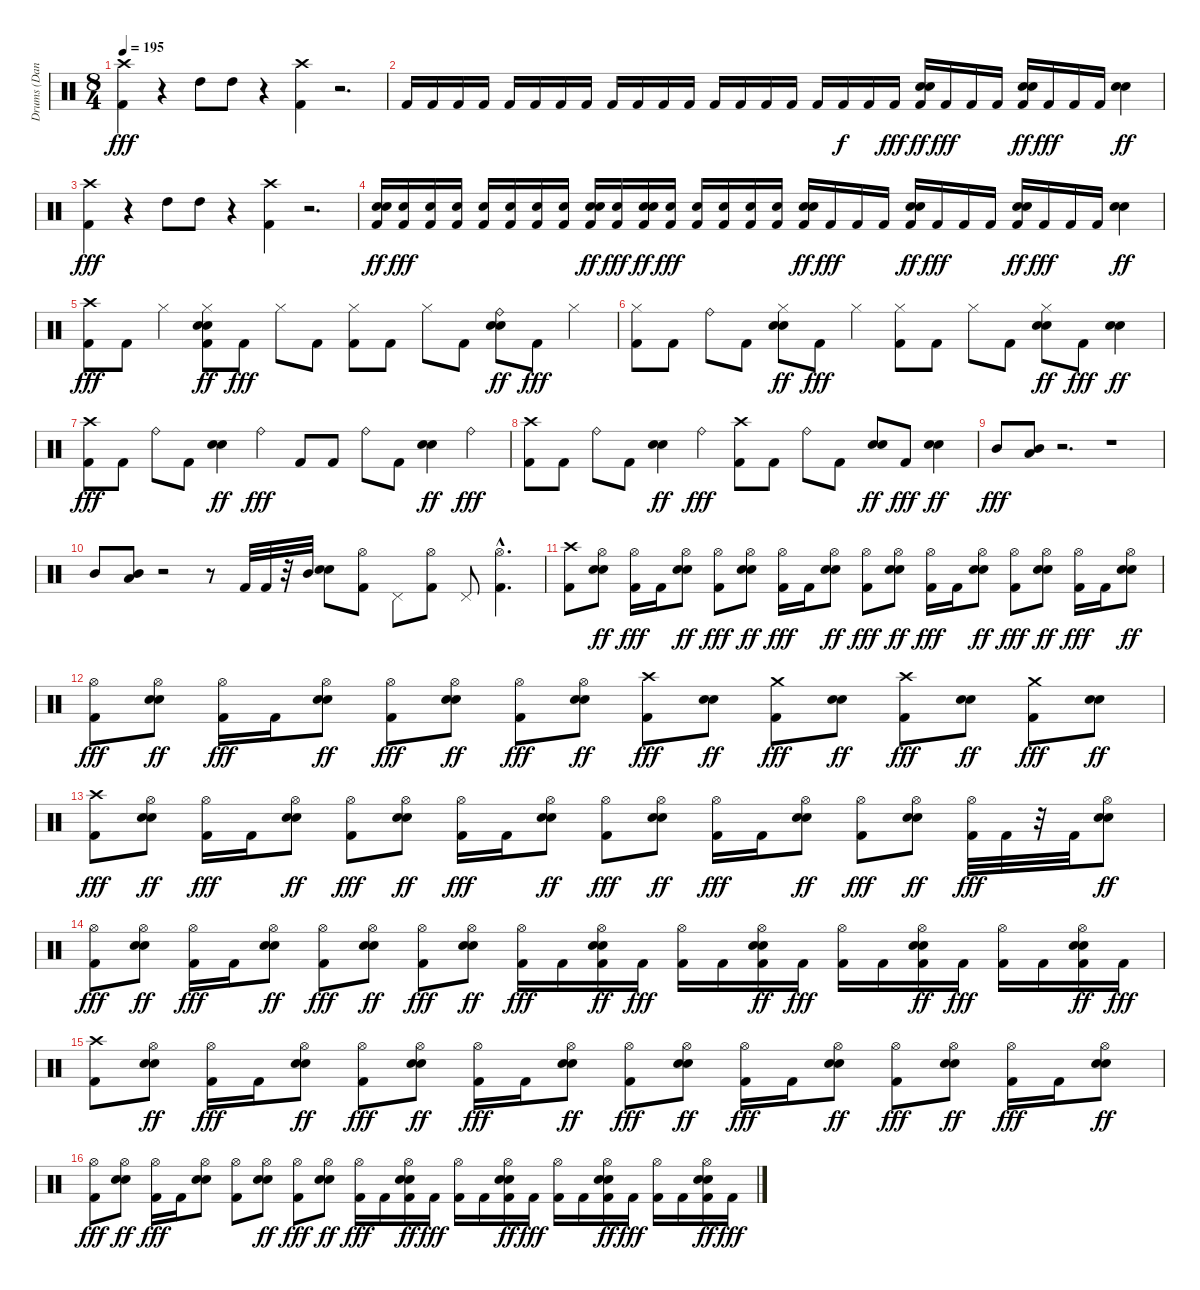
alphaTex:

\track ("Drums (Dan Zimmermann)" "Drums (Dan") {instrument percussion}
\staff {score}
\articulation defaults
\ts (8 4)
\tempo 195
\clef neutral
\ks c
("Kick (hit) 2" "Crash high (hit)").4{dy fff} r.4 "High Tom (hit)".8 "High Tom (hit)".8 r.4 ("Kick (hit) 2" "Crash high (hit)").4 r.2{d} |
"Kick (hit) 2".16 "Kick (hit) 2".16 "Kick (hit) 2".16 "Kick (hit) 2".16 "Kick (hit) 2".16 "Kick (hit) 2".16 "Kick (hit) 2".16 "Kick (hit) 2".16 "Kick (hit) 2".16 "Kick (hit) 2".16 "Kick (hit) 2".16 "Kick (hit) 2".16 "Kick (hit) 2".16 "Kick (hit) 2".16 "Kick (hit) 2".16 "Kick (hit) 2".16 "Kick (hit) 2".16 "Kick (hit) 2".16{dy f} "Kick (hit) 2".16 "Kick (hit) 2".16{dy fff} ("Metronome (bell)" "Kick (hit) 2" "Snare (hit) 2").16{dy ff} "Kick (hit) 2".16{dy fff} "Kick (hit) 2".16 "Kick (hit) 2".16 ("Metronome (bell)" "Kick (hit) 2" "Snare (hit) 2").16{dy ff} "Kick (hit) 2".16{dy fff} "Kick (hit) 2".16 "Kick (hit) 2".16 ("Metronome (bell)" "Snare (hit) 2").4{dy ff} |
("Kick (hit) 2" "Crash high (hit)").4{dy fff} r.4 "High Tom (hit)".8 "High Tom (hit)".8 r.4 ("Kick (hit) 2" "Crash high (hit)").4 r.2{d} |
("Metronome (bell)" "Kick (hit) 2" "Snare (hit) 2").16{dy ff} ("Metronome (bell)" "Kick (hit) 2").16{dy fff} ("Metronome (bell)" "Kick (hit) 2").16 ("Metronome (bell)" "Kick (hit) 2").16 ("Metronome (bell)" "Kick (hit) 2").16 ("Metronome (bell)" "Kick (hit) 2").16 ("Metronome (bell)" "Kick (hit) 2").16 ("Metronome (bell)" "Kick (hit) 2").16 ("Metronome (bell)" "Kick (hit) 2" "Snare (hit) 2").16{dy ff} ("Metronome (bell)" "Kick (hit) 2").16{dy fff} ("Metronome (bell)" "Kick (hit) 2" "Snare (hit) 2").16{dy ff} ("Metronome (bell)" "Kick (hit) 2").16{dy fff} ("Metronome (bell)" "Kick (hit) 2").16 ("Metronome (bell)" "Kick (hit) 2").16 ("Metronome (bell)" "Kick (hit) 2").16 ("Metronome (bell)" "Kick (hit) 2").16 ("Metronome (bell)" "Kick (hit) 2" "Snare (hit) 2").16{dy ff} "Kick (hit) 2".16{dy fff} "Kick (hit) 2".16 "Kick (hit) 2".16 ("Metronome (bell)" "Kick (hit) 2" "Snare (hit) 2").16{dy ff} "Kick (hit) 2".16{dy fff} "Kick (hit) 2".16 "Kick (hit) 2".16 ("Metronome (bell)" "Kick (hit) 2" "Snare (hit) 2").16{dy ff} "Kick (hit) 2".16{dy fff} "Kick (hit) 2".16 "Kick (hit) 2".16 ("Metronome (bell)" "Snare (hit) 2").4{dy ff} |
("Kick (hit) 2" "Crash high (hit)").8{dy fff} "Kick (hit) 2".8 "Hi-Hat (closed)".4 ("Metronome (bell)" "Kick (hit) 2" "Hi-Hat (closed)" "Snare (hit) 2").8{dy ff} "Kick (hit) 2".8{dy fff} "Hi-Hat (closed)".8 "Kick (hit) 2".8 ("Kick (hit) 2" "Hi-Hat (closed)").8 "Kick (hit) 2".8 "Hi-Hat (closed)".8 "Kick (hit) 2".8 ("Metronome (bell)" "Ride (bell)" "Snare (hit) 2").8{dy ff} "Kick (hit) 2".8{dy fff} "Hi-Hat (closed)".4 |
("Kick (hit) 2" "Hi-Hat (closed)").8 "Kick (hit) 2".8 "Ride (bell)".8 "Kick (hit) 2".8 ("Metronome (bell)" "Hi-Hat (closed)" "Snare (hit) 2").8{dy ff} "Kick (hit) 2".8{dy fff} "Hi-Hat (closed)".4 ("Kick (hit) 2" "Hi-Hat (closed)").8 "Kick (hit) 2".8 "Hi-Hat (closed)".8 "Kick (hit) 2".8 ("Metronome (bell)" "Hi-Hat (closed)" "Snare (hit) 2").8{dy ff} "Kick (hit) 2".8{dy fff} ("Metronome (bell)" "Snare (hit) 2").4{dy ff} |
("Kick (hit) 2" "Crash high (hit)").8{dy fff} "Kick (hit) 2".8 "Ride (bell)".8 "Kick (hit) 2".8 ("Metronome (bell)" "Snare (hit) 2").4{dy ff} "Ride (bell)".4{dy fff} "Kick (hit) 2".8 "Kick (hit) 2".8 "Ride (bell)".8 "Kick (hit) 2".8 ("Metronome (bell)" "Snare (hit) 2").4{dy ff} "Ride (bell)".4{dy fff} |
("Kick (hit) 2" "Crash high (hit)").8 "Kick (hit) 2".8 "Ride (bell)".8 "Kick (hit) 2".8 ("Metronome (bell)" "Snare (hit) 2").4{dy ff} "Ride (bell)".4{dy fff} ("Kick (hit) 2" "Crash high (hit)").8 "Kick (hit) 2".8 "Ride (bell)".8 "Kick (hit) 2".8 ("Metronome (bell)" "Snare (hit) 2").8{dy ff} "Kick (hit) 2".8{dy fff} ("Metronome (bell)" "Snare (hit) 2").4{dy ff} |
"Mid Tom (hit)".8{dy fff} ("Low Tom (hit)" "Mid Tom (hit)").8 r.2{d} r.1 |
"Mid Tom (hit)".8 ("Low Tom (hit)" "Mid Tom (hit)").8 r.2 r.8 "Kick (hit) 2".32 "Kick (hit) 2".32 r.32 "Mid Tom (hit)".32 ("Metronome (bell)" "Snare (hit) 2").8 ("Kick (hit) 2" "Hi-Hat (open)").8 "Pedal Hi-Hat (hit)".8 ("Kick (hit) 2" "Hi-Hat (open)").8 "Pedal Hi-Hat (hit)".8 ("Kick (hit) 2" "Hi-Hat (open)"{hac}).4{d} |
("Kick (hit) 2" "Crash high (hit)").8 ("Metronome (bell)" "Hi-Hat (open)" "Snare (hit) 2").8{dy ff} ("Kick (hit) 2" "Hi-Hat (open)").16{dy fff} "Kick (hit) 2".16 ("Metronome (bell)" "Hi-Hat (open)" "Snare (hit) 2").8{dy ff} ("Kick (hit) 2" "Hi-Hat (open)").8{dy fff} ("Metronome (bell)" "Hi-Hat (open)" "Snare (hit) 2").8{dy ff} ("Kick (hit) 2" "Hi-Hat (open)").16{dy fff} "Kick (hit) 2".16 ("Metronome (bell)" "Hi-Hat (open)" "Snare (hit) 2").8{dy ff} ("Kick (hit) 2" "Hi-Hat (open)").8{dy fff} ("Metronome (bell)" "Hi-Hat (open)" "Snare (hit) 2").8{dy ff} ("Kick (hit) 2" "Hi-Hat (open)").16{dy fff} "Kick (hit) 2".16 ("Metronome (bell)" "Hi-Hat (open)" "Snare (hit) 2").8{dy ff} ("Kick (hit) 2" "Hi-Hat (open)").8{dy fff} ("Metronome (bell)" "Hi-Hat (open)" "Snare (hit) 2").8{dy ff} ("Kick (hit) 2" "Hi-Hat (open)").16{dy fff} "Kick (hit) 2".16 ("Metronome (bell)" "Hi-Hat (open)" "Snare (hit) 2").8{dy ff} |
("Kick (hit) 2" "Hi-Hat (open)").8{dy fff} ("Metronome (bell)" "Hi-Hat (open)" "Snare (hit) 2").8{dy ff} ("Kick (hit) 2" "Hi-Hat (open)").16{dy fff} "Kick (hit) 2".16 ("Metronome (bell)" "Hi-Hat (open)" "Snare (hit) 2").8{dy ff} ("Kick (hit) 2" "Hi-Hat (open)").8{dy fff} ("Metronome (bell)" "Hi-Hat (open)" "Snare (hit) 2").8{dy ff} ("Kick (hit) 2" "Hi-Hat (open)").8{dy fff} ("Metronome (bell)" "Hi-Hat (open)" "Snare (hit) 2").8{dy ff} ("Kick (hit) 2" "Crash high (hit)").8{dy fff} ("Metronome (bell)" "Snare (hit) 2").8{dy ff} ("Kick (hit) 2" "Crash medium (hit)").8{dy fff} ("Metronome (bell)" "Snare (hit) 2").8{dy ff} ("Kick (hit) 2" "Crash high (hit)").8{dy fff} ("Metronome (bell)" "Snare (hit) 2").8{dy ff} ("Kick (hit) 2" "Crash medium (hit)").8{dy fff} ("Metronome (bell)" "Snare (hit) 2").8{dy ff} |
("Kick (hit) 2" "Crash high (hit)").8{dy fff} ("Metronome (bell)" "Hi-Hat (open)" "Snare (hit) 2").8{dy ff} ("Kick (hit) 2" "Hi-Hat (open)").16{dy fff} "Kick (hit) 2".16 ("Metronome (bell)" "Hi-Hat (open)" "Snare (hit) 2").8{dy ff} ("Kick (hit) 2" "Hi-Hat (open)").8{dy fff} ("Metronome (bell)" "Hi-Hat (open)" "Snare (hit) 2").8{dy ff} ("Kick (hit) 2" "Hi-Hat (open)").16{dy fff} "Kick (hit) 2".16 ("Metronome (bell)" "Hi-Hat (open)" "Snare (hit) 2").8{dy ff} ("Kick (hit) 2" "Hi-Hat (open)").8{dy fff} ("Metronome (bell)" "Hi-Hat (open)" "Snare (hit) 2").8{dy ff} ("Kick (hit) 2" "Hi-Hat (open)").16{dy fff} "Kick (hit) 2".16 ("Metronome (bell)" "Hi-Hat (open)" "Snare (hit) 2").8{dy ff} ("Kick (hit) 2" "Hi-Hat (open)").8{dy fff} ("Metronome (bell)" "Hi-Hat (open)" "Snare (hit) 2").8{dy ff} ("Kick (hit) 2" "Hi-Hat (open)").32{dy fff} "Kick (hit) 2".32 r.32 "Kick (hit) 2".32 ("Metronome (bell)" "Hi-Hat (open)" "Snare (hit) 2").8{dy ff} |
("Kick (hit) 2" "Hi-Hat (open)").8{dy fff} ("Metronome (bell)" "Hi-Hat (open)" "Snare (hit) 2").8{dy ff} ("Kick (hit) 2" "Hi-Hat (open)").16{dy fff} "Kick (hit) 2".16 ("Metronome (bell)" "Hi-Hat (open)" "Snare (hit) 2").8{dy ff} ("Kick (hit) 2" "Hi-Hat (open)").8{dy fff} ("Metronome (bell)" "Hi-Hat (open)" "Snare (hit) 2").8{dy ff} ("Kick (hit) 2" "Hi-Hat (open)").8{dy fff} ("Metronome (bell)" "Hi-Hat (open)" "Snare (hit) 2").8{dy ff} ("Kick (hit) 2" "Hi-Hat (open)").16{dy fff} "Kick (hit) 2".16 ("Metronome (bell)" "Kick (hit) 2" "Hi-Hat (open)" "Snare (hit) 2").16{dy ff} "Kick (hit) 2".16{dy fff} ("Kick (hit) 2" "Hi-Hat (open)").16 "Kick (hit) 2".16 ("Metronome (bell)" "Kick (hit) 2" "Hi-Hat (open)" "Snare (hit) 2").16{dy ff} "Kick (hit) 2".16{dy fff} ("Kick (hit) 2" "Hi-Hat (open)").16 "Kick (hit) 2".16 ("Metronome (bell)" "Kick (hit) 2" "Hi-Hat (open)" "Snare (hit) 2").16{dy ff} "Kick (hit) 2".16{dy fff} ("Kick (hit) 2" "Hi-Hat (open)").16 "Kick (hit) 2".16 ("Metronome (bell)" "Kick (hit) 2" "Hi-Hat (open)" "Snare (hit) 2").16{dy ff} "Kick (hit) 2".16{dy fff} |
("Kick (hit) 2" "Crash high (hit)").8 ("Metronome (bell)" "Hi-Hat (open)" "Snare (hit) 2").8{dy ff} ("Kick (hit) 2" "Hi-Hat (open)").16{dy fff} "Kick (hit) 2".16 ("Metronome (bell)" "Hi-Hat (open)" "Snare (hit) 2").8{dy ff} ("Kick (hit) 2" "Hi-Hat (open)").8{dy fff} ("Metronome (bell)" "Hi-Hat (open)" "Snare (hit) 2").8{dy ff} ("Kick (hit) 2" "Hi-Hat (open)").16{dy fff} "Kick (hit) 2".16 ("Metronome (bell)" "Hi-Hat (open)" "Snare (hit) 2").8{dy ff} ("Kick (hit) 2" "Hi-Hat (open)").8{dy fff} ("Metronome (bell)" "Hi-Hat (open)" "Snare (hit) 2").8{dy ff} ("Kick (hit) 2" "Hi-Hat (open)").16{dy fff} "Kick (hit) 2".16 ("Metronome (bell)" "Hi-Hat (open)" "Snare (hit) 2").8{dy ff} ("Kick (hit) 2" "Hi-Hat (open)").8{dy fff} ("Metronome (bell)" "Hi-Hat (open)" "Snare (hit) 2").8{dy ff} ("Kick (hit) 2" "Hi-Hat (open)").16{dy fff} "Kick (hit) 2".16 ("Metronome (bell)" "Hi-Hat (open)" "Snare (hit) 2").8{dy ff} |
("Kick (hit) 2" "Hi-Hat (open)").8{dy fff} ("Metronome (bell)" "Hi-Hat (open)" "Snare (hit) 2").8{dy ff} ("Kick (hit) 2" "Hi-Hat (open)").16{dy fff} "Kick (hit) 2".16 ("Metronome (bell)" "Hi-Hat (open)" "Snare (hit) 2").8 ("Kick (hit) 2" "Hi-Hat (open)").8 ("Metronome (bell)" "Hi-Hat (open)" "Snare (hit) 2").8{dy ff} ("Kick (hit) 2" "Hi-Hat (open)").8{dy fff} ("Metronome (bell)" "Hi-Hat (open)" "Snare (hit) 2").8{dy ff} ("Kick (hit) 2" "Hi-Hat (open)").16{dy fff} "Kick (hit) 2".16 ("Metronome (bell)" "Kick (hit) 2" "Hi-Hat (open)" "Snare (hit) 2").16{dy ff} "Kick (hit) 2".16{dy fff} ("Kick (hit) 2" "Hi-Hat (open)").16 "Kick (hit) 2".16 ("Metronome (bell)" "Kick (hit) 2" "Hi-Hat (open)" "Snare (hit) 2").16{dy ff} "Kick (hit) 2".16{dy fff} ("Kick (hit) 2" "Hi-Hat (open)").16 "Kick (hit) 2".16 ("Metronome (bell)" "Kick (hit) 2" "Hi-Hat (open)" "Snare (hit) 2").16{dy ff} "Kick (hit) 2".16{dy fff} ("Kick (hit) 2" "Hi-Hat (open)").16 "Kick (hit) 2".16 ("Metronome (bell)" "Kick (hit) 2" "Hi-Hat (open)" "Snare (hit) 2").16{dy ff} "Kick (hit) 2".16{dy fff}
